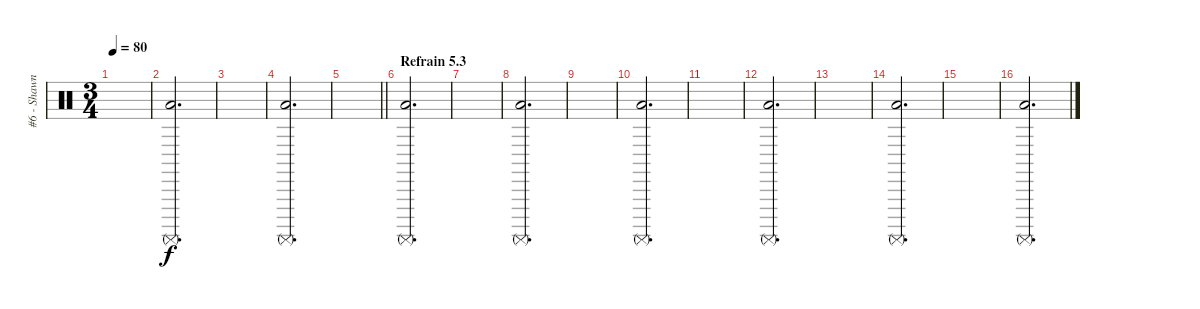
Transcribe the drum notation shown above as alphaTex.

\track ("#6 - Shawn Crahan" "#6 - Shawn") {instrument percussion}
\staff {score}
\articulation defaults
\ts (3 4)
\tempo 80
\clef neutral
\ks c
|
("Low Floor Tom (hit)" "Surdo (mute)").2{d volume 16} |
|
("Low Floor Tom (hit)" "Surdo (mute)").2{d} |
\barLineRight lightlight
|
\section ("" "Refrain 5.3")
("Low Floor Tom (hit)" "Surdo (mute)").2{d} |
|
("Low Floor Tom (hit)" "Surdo (mute)").2{d} |
|
("Low Floor Tom (hit)" "Surdo (mute)").2{d volume 16} |
|
("Low Floor Tom (hit)" "Surdo (mute)").2{d} |
|
("Low Floor Tom (hit)" "Surdo (mute)").2{d} |
|
("Low Floor Tom (hit)" "Surdo (mute)").2{d}
